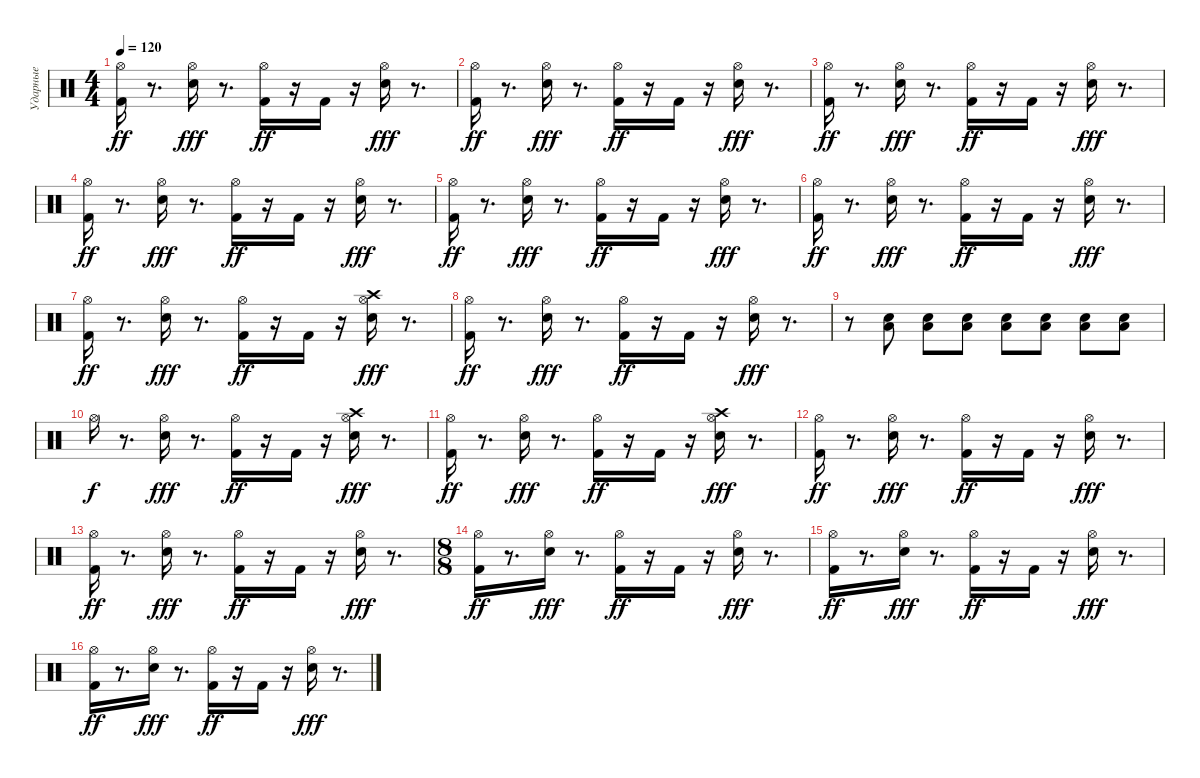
\track ("Ударные" "Ударные") {instrument percussion}
\staff {score}
\articulation defaults
\ts (4 4)
\tempo 120
\clef neutral
\ks c
("Kick (hit) 2" "Hi-Hat (open)").16{dy ff} r.8{d} ("Snare (hit) 2" "Hi-Hat (open)").16{dy fff} r.8{d} ("Kick (hit) 2" "Hi-Hat (open)").16{dy ff} r.16 "Kick (hit) 2".16 r.16 ("Snare (hit) 2" "Hi-Hat (open)").16{dy fff} r.8{d} |
("Kick (hit) 2" "Hi-Hat (open)").16{dy ff} r.8{d} ("Snare (hit) 2" "Hi-Hat (open)").16{dy fff} r.8{d} ("Kick (hit) 2" "Hi-Hat (open)").16{dy ff} r.16 "Kick (hit) 2".16 r.16 ("Snare (hit) 2" "Hi-Hat (open)").16{dy fff} r.8{d} |
("Kick (hit) 2" "Hi-Hat (open)").16{dy ff} r.8{d} ("Snare (hit) 2" "Hi-Hat (open)").16{dy fff} r.8{d} ("Kick (hit) 2" "Hi-Hat (open)").16{dy ff} r.16 "Kick (hit) 2".16 r.16 ("Snare (hit) 2" "Hi-Hat (open)").16{dy fff} r.8{d} |
("Kick (hit) 2" "Hi-Hat (open)").16{dy ff} r.8{d} ("Snare (hit) 2" "Hi-Hat (open)").16{dy fff} r.8{d} ("Kick (hit) 2" "Hi-Hat (open)").16{dy ff} r.16 "Kick (hit) 2".16 r.16 ("Snare (hit) 2" "Hi-Hat (open)").16{dy fff} r.8{d} |
("Kick (hit) 2" "Hi-Hat (open)").16{dy ff} r.8{d} ("Snare (hit) 2" "Hi-Hat (open)").16{dy fff} r.8{d} ("Kick (hit) 2" "Hi-Hat (open)").16{dy ff} r.16 "Kick (hit) 2".16 r.16 ("Snare (hit) 2" "Hi-Hat (open)").16{dy fff} r.8{d} |
("Kick (hit) 2" "Hi-Hat (open)").16{dy ff} r.8{d} ("Snare (hit) 2" "Hi-Hat (open)").16{dy fff} r.8{d} ("Kick (hit) 2" "Hi-Hat (open)").16{dy ff} r.16 "Kick (hit) 2".16 r.16 ("Snare (hit) 2" "Hi-Hat (open)").16{dy fff} r.8{d} |
("Kick (hit) 2" "Hi-Hat (open)").16{dy ff} r.8{d} ("Snare (hit) 2" "Hi-Hat (open)").16{dy fff} r.8{d} ("Kick (hit) 2" "Hi-Hat (open)").16{dy ff} r.16 "Kick (hit) 2".16 r.16 ("Snare (hit) 2" "Hi-Hat (open)" "Crash high (hit)").16{dy fff} r.8{d} |
("Kick (hit) 2" "Hi-Hat (open)").16{dy ff} r.8{d} ("Snare (hit) 2" "Hi-Hat (open)").16{dy fff} r.8{d} ("Kick (hit) 2" "Hi-Hat (open)").16{dy ff} r.16 "Kick (hit) 2".16 r.16 ("Snare (hit) 2" "Hi-Hat (open)").16{dy fff} r.8{d} |
r.8 ("Snare (hit) 2" "Low Floor Tom (hit)").8 ("Snare (hit) 2" "Low Floor Tom (hit)").8 ("Snare (hit) 2" "Low Floor Tom (hit)").8 ("Snare (hit) 2" "Low Floor Tom (hit)").8 ("Snare (hit) 2" "Low Floor Tom (hit)").8 ("Snare (hit) 2" "Low Floor Tom (hit)").8 ("Snare (hit) 2" "Low Floor Tom (hit)").8 |
"Hi-Hat (open)".16{dy f} r.8{d} ("Snare (hit) 2" "Hi-Hat (open)").16{dy fff} r.8{d} ("Kick (hit) 2" "Hi-Hat (open)").16{dy ff} r.16 "Kick (hit) 2".16 r.16 ("Snare (hit) 2" "Hi-Hat (open)" "Crash high (hit)").16{dy fff} r.8{d} |
("Kick (hit) 2" "Hi-Hat (open)").16{dy ff} r.8{d} ("Snare (hit) 2" "Hi-Hat (open)").16{dy fff} r.8{d} ("Kick (hit) 2" "Hi-Hat (open)").16{dy ff} r.16 "Kick (hit) 2".16 r.16 ("Snare (hit) 2" "Hi-Hat (open)" "Crash high (hit)").16{dy fff} r.8{d} |
("Kick (hit) 2" "Hi-Hat (open)").16{dy ff} r.8{d} ("Snare (hit) 2" "Hi-Hat (open)").16{dy fff} r.8{d} ("Kick (hit) 2" "Hi-Hat (open)").16{dy ff} r.16 "Kick (hit) 2".16 r.16 ("Snare (hit) 2" "Hi-Hat (open)").16{dy fff} r.8{d} |
("Kick (hit) 2" "Hi-Hat (open)").16{dy ff} r.8{d} ("Snare (hit) 2" "Hi-Hat (open)").16{dy fff} r.8{d} ("Kick (hit) 2" "Hi-Hat (open)").16{dy ff} r.16 "Kick (hit) 2".16 r.16 ("Snare (hit) 2" "Hi-Hat (open)").16{dy fff} r.8{d} |
\ts (8 8)
("Kick (hit) 2" "Hi-Hat (open)").16{dy ff} r.8{d} ("Snare (hit) 2" "Hi-Hat (open)").16{dy fff} r.8{d} ("Kick (hit) 2" "Hi-Hat (open)").16{dy ff} r.16 "Kick (hit) 2".16 r.16 ("Snare (hit) 2" "Hi-Hat (open)").16{dy fff} r.8{d} |
("Kick (hit) 2" "Hi-Hat (open)").16{dy ff} r.8{d} ("Snare (hit) 2" "Hi-Hat (open)").16{dy fff} r.8{d} ("Kick (hit) 2" "Hi-Hat (open)").16{dy ff} r.16 "Kick (hit) 2".16 r.16 ("Snare (hit) 2" "Hi-Hat (open)").16{dy fff} r.8{d} |
("Kick (hit) 2" "Hi-Hat (open)").16{dy ff} r.8{d} ("Snare (hit) 2" "Hi-Hat (open)").16{dy fff} r.8{d} ("Kick (hit) 2" "Hi-Hat (open)").16{dy ff} r.16 "Kick (hit) 2".16 r.16 ("Snare (hit) 2" "Hi-Hat (open)").16{dy fff} r.8{d}
